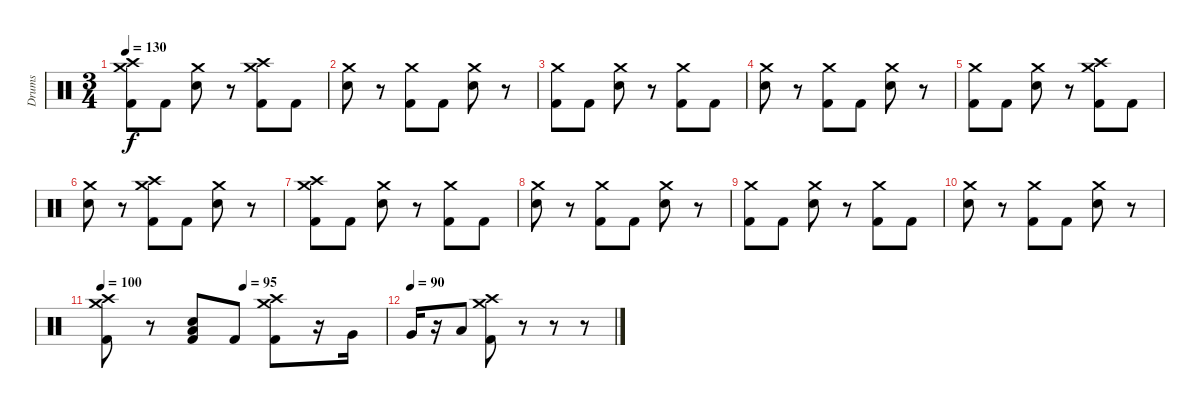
\track ("Drums" "Drums") {instrument percussion}
\staff {score}
\articulation defaults
\ts (3 4)
\tempo 130
\clef neutral
\ks c
("Kick (hit) 2" "Crash high (hit)" "Crash medium (hit)").8{dy f} "Kick (hit) 2".8 ("Snare (hit) 2" "Crash medium (hit)").8 r.8 ("Kick (hit) 2" "Crash high (hit)" "Crash medium (hit)").8 "Kick (hit) 2".8 |
("Snare (hit) 2" "Crash medium (hit)").8 r.8 ("Kick (hit) 2" "Crash medium (hit)").8 "Kick (hit) 2".8 ("Snare (hit) 2" "Crash medium (hit)").8 r.8 |
("Kick (hit) 2" "Crash medium (hit)").8 "Kick (hit) 2".8 ("Snare (hit) 2" "Crash medium (hit)").8 r.8 ("Kick (hit) 2" "Crash medium (hit)").8 "Kick (hit) 2".8 |
("Snare (hit) 2" "Crash medium (hit)").8 r.8 ("Kick (hit) 2" "Crash medium (hit)").8 "Kick (hit) 2".8 ("Snare (hit) 2" "Crash medium (hit)").8 r.8 |
("Kick (hit) 2" "Crash medium (hit)").8 "Kick (hit) 2".8 ("Snare (hit) 2" "Crash medium (hit)").8 r.8 ("Kick (hit) 2" "Crash high (hit)" "Crash medium (hit)").8 "Kick (hit) 2".8 |
("Snare (hit) 2" "Crash medium (hit)").8 r.8 ("Kick (hit) 2" "Crash high (hit)" "Crash medium (hit)").8 "Kick (hit) 2".8 ("Snare (hit) 2" "Crash medium (hit)").8 r.8 |
("Kick (hit) 2" "Crash high (hit)" "Crash medium (hit)").8 "Kick (hit) 2".8 ("Snare (hit) 2" "Crash medium (hit)").8 r.8 ("Kick (hit) 2" "Crash medium (hit)").8 "Kick (hit) 2".8 |
("Snare (hit) 2" "Crash medium (hit)").8 r.8 ("Kick (hit) 2" "Crash medium (hit)").8 "Kick (hit) 2".8 ("Snare (hit) 2" "Crash medium (hit)").8 r.8 |
("Kick (hit) 2" "Crash medium (hit)").8 "Kick (hit) 2".8 ("Snare (hit) 2" "Crash medium (hit)").8 r.8 ("Kick (hit) 2" "Crash medium (hit)").8 "Kick (hit) 2".8 |
("Snare (hit) 2" "Crash medium (hit)").8 r.8 ("Kick (hit) 2" "Crash medium (hit)").8 "Kick (hit) 2".8 ("Snare (hit) 2" "Crash medium (hit)").8 r.8 |
\tempo 100
\tempo (95 0.5)
("Kick (hit) 2" "Crash high (hit)" "Crash medium (hit)").8 r.8 ("Kick (hit) 2" "Low Floor Tom (hit)" "Snare (hit) 2").8 "Kick (hit) 2".8 ("Kick (hit) 2" "Crash high (hit)" "Crash medium (hit)").8 r.16 "Very Low Tom (hit)".16 |
\tempo (90)
"Very Low Tom (hit)".16 r.16 "Low Floor Tom (hit)".8 ("Kick (hit) 2" "Crash high (hit)" "Crash medium (hit)").8 r.8 r.8 r.8
